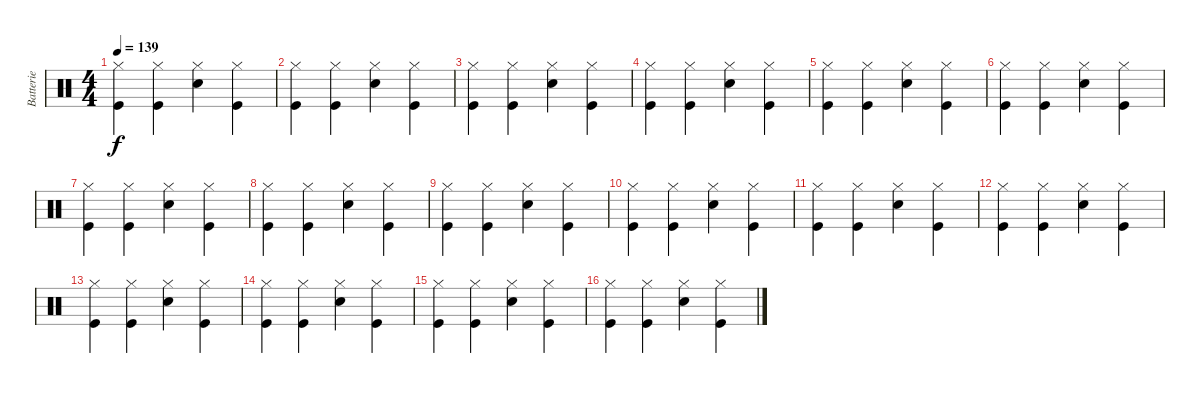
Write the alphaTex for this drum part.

\track ("Batterie" "Batterie") {instrument percussion}
\staff {score}
\articulation defaults
\ts (4 4)
\tempo 139
\clef neutral
\ks c
("Hi-Hat (closed)" "Kick (hit)").4{dy f} ("Hi-Hat (closed)" "Kick (hit)").4 ("Hi-Hat (closed)" "Snare (hit) 2").4 ("Hi-Hat (closed)" "Kick (hit)").4 |
("Hi-Hat (closed)" "Kick (hit)").4 ("Hi-Hat (closed)" "Kick (hit)").4 ("Hi-Hat (closed)" "Snare (hit) 2").4 ("Hi-Hat (closed)" "Kick (hit)").4 |
("Hi-Hat (closed)" "Kick (hit)").4 ("Hi-Hat (closed)" "Kick (hit)").4 ("Hi-Hat (closed)" "Snare (hit) 2").4 ("Hi-Hat (closed)" "Kick (hit)").4 |
("Hi-Hat (closed)" "Kick (hit)").4 ("Hi-Hat (closed)" "Kick (hit)").4 ("Hi-Hat (closed)" "Snare (hit) 2").4 ("Hi-Hat (closed)" "Kick (hit)").4 |
("Hi-Hat (closed)" "Kick (hit)").4 ("Hi-Hat (closed)" "Kick (hit)").4 ("Hi-Hat (closed)" "Snare (hit) 2").4 ("Hi-Hat (closed)" "Kick (hit)").4 |
("Hi-Hat (closed)" "Kick (hit)").4 ("Hi-Hat (closed)" "Kick (hit)").4 ("Hi-Hat (closed)" "Snare (hit) 2").4 ("Hi-Hat (closed)" "Kick (hit)").4 |
("Hi-Hat (closed)" "Kick (hit)").4 ("Hi-Hat (closed)" "Kick (hit)").4 ("Hi-Hat (closed)" "Snare (hit) 2").4 ("Hi-Hat (closed)" "Kick (hit)").4 |
("Hi-Hat (closed)" "Kick (hit)").4 ("Hi-Hat (closed)" "Kick (hit)").4 ("Hi-Hat (closed)" "Snare (hit) 2").4 ("Hi-Hat (closed)" "Kick (hit)").4 |
("Hi-Hat (closed)" "Kick (hit)").4 ("Hi-Hat (closed)" "Kick (hit)").4 ("Hi-Hat (closed)" "Snare (hit) 2").4 ("Hi-Hat (closed)" "Kick (hit)").4 |
("Hi-Hat (closed)" "Kick (hit)").4 ("Hi-Hat (closed)" "Kick (hit)").4 ("Hi-Hat (closed)" "Snare (hit) 2").4 ("Hi-Hat (closed)" "Kick (hit)").4 |
("Hi-Hat (closed)" "Kick (hit)").4 ("Hi-Hat (closed)" "Kick (hit)").4 ("Hi-Hat (closed)" "Snare (hit) 2").4 ("Hi-Hat (closed)" "Kick (hit)").4 |
("Hi-Hat (closed)" "Kick (hit)").4 ("Hi-Hat (closed)" "Kick (hit)").4 ("Hi-Hat (closed)" "Snare (hit) 2").4 ("Hi-Hat (closed)" "Kick (hit)").4 |
("Hi-Hat (closed)" "Kick (hit)").4 ("Hi-Hat (closed)" "Kick (hit)").4 ("Hi-Hat (closed)" "Snare (hit) 2").4 ("Hi-Hat (closed)" "Kick (hit)").4 |
("Hi-Hat (closed)" "Kick (hit)").4 ("Hi-Hat (closed)" "Kick (hit)").4 ("Hi-Hat (closed)" "Snare (hit) 2").4 ("Hi-Hat (closed)" "Kick (hit)").4 |
("Hi-Hat (closed)" "Kick (hit)").4 ("Hi-Hat (closed)" "Kick (hit)").4 ("Hi-Hat (closed)" "Snare (hit) 2").4 ("Hi-Hat (closed)" "Kick (hit)").4 |
("Hi-Hat (closed)" "Kick (hit)").4 ("Hi-Hat (closed)" "Kick (hit)").4 ("Hi-Hat (closed)" "Snare (hit) 2").4 ("Hi-Hat (closed)" "Kick (hit)").4
